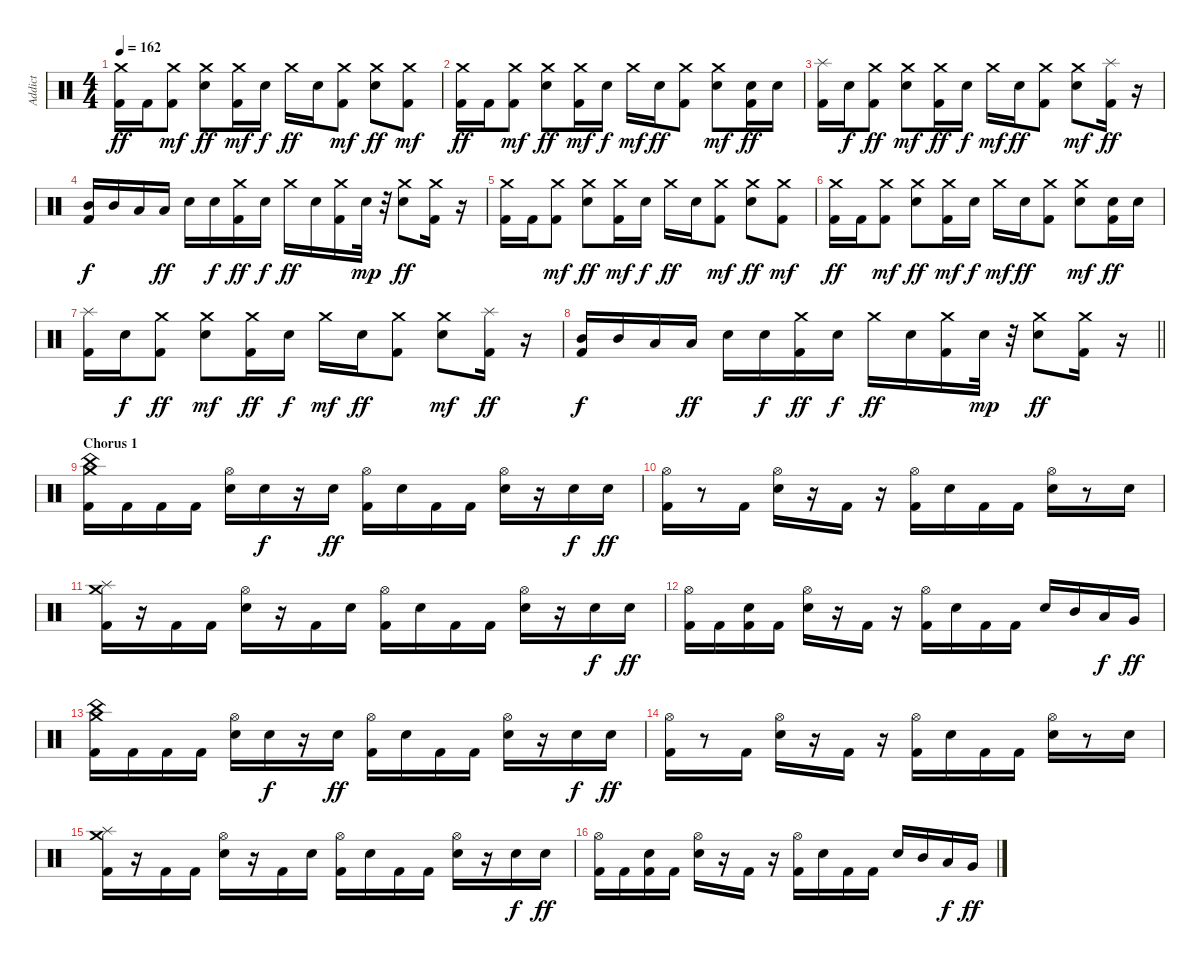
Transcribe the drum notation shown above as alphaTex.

\track ("Addict" "Addict") {instrument percussion}
\staff {score}
\articulation defaults
\ts (4 4)
\tempo 162
\clef neutral
\ks c
("Kick (hit) 2" "Crash medium (hit)").16{dy ff} "Kick (hit) 2".16 ("Kick (hit) 2" "Crash medium (hit)").8{dy mf} ("Snare (hit) 2" "Crash medium (hit)").8{dy ff} ("Kick (hit) 2" "Crash medium (hit)").16{dy mf} "Snare (hit) 2".16{dy f} "Crash medium (hit)".16{dy ff} "Snare (hit) 2".16 ("Kick (hit) 2" "Crash medium (hit)").8{dy mf} ("Snare (hit) 2" "Crash medium (hit)").8{dy ff} ("Kick (hit) 2" "Crash medium (hit)").8{dy mf} |
("Kick (hit) 2" "Crash medium (hit)").16{dy ff} "Kick (hit) 2".16 ("Kick (hit) 2" "Crash medium (hit)").8{dy mf} ("Snare (hit) 2" "Crash medium (hit)").8{dy ff} ("Kick (hit) 2" "Crash medium (hit)").16{dy mf} "Snare (hit) 2".16{dy f} "Crash medium (hit)".16{dy mf} "Snare (hit) 2".16{dy ff} ("Kick (hit) 2" "Crash medium (hit)").8 ("Snare (hit) 2" "Crash medium (hit)").8{dy mf} ("Kick (hit) 2" "Snare (hit) 2").16{dy ff} "Snare (hit) 2".16 |
("Kick (hit) 2" "Splash (hit)").16 "Snare (hit) 2".16{dy f} ("Kick (hit) 2" "Crash medium (hit)").8{dy ff} ("Snare (hit) 2" "Crash medium (hit)").8{dy mf} ("Kick (hit) 2" "Crash medium (hit)").16{dy ff} "Snare (hit) 2".16{dy f} "Crash medium (hit)".16{dy mf} "Snare (hit) 2".16{dy ff} ("Kick (hit) 2" "Crash medium (hit)").8 ("Snare (hit) 2" "Crash medium (hit)").8{dy mf} ("Kick (hit) 2" "Splash (hit)").16{dy ff} r.16 |
("Kick (hit) 2" "Mid Tom (hit)").16{dy f} "Mid Tom (hit)".16 "Low Tom (hit)".16 "Low Tom (hit)".16{dy ff} "Snare (hit) 2".16 "Snare (hit) 2".16{dy f} ("Kick (hit) 2" "Crash medium (hit)").16{dy ff} "Snare (hit) 2".16{dy f} "Crash medium (hit)".16{dy ff} "Snare (hit) 2".16 ("Kick (hit) 2" "Crash medium (hit)").16 "Snare (hit) 2".32{dy mp} r.32 ("Snare (hit) 2" "Crash medium (hit)").8{dy ff} ("Kick (hit) 2" "Crash medium (hit)").16 r.16 |
("Kick (hit) 2" "Crash medium (hit)").16 "Kick (hit) 2".16 ("Kick (hit) 2" "Crash medium (hit)").8{dy mf} ("Snare (hit) 2" "Crash medium (hit)").8{dy ff} ("Kick (hit) 2" "Crash medium (hit)").16{dy mf} "Snare (hit) 2".16{dy f} "Crash medium (hit)".16{dy ff} "Snare (hit) 2".16 ("Kick (hit) 2" "Crash medium (hit)").8{dy mf} ("Snare (hit) 2" "Crash medium (hit)").8{dy ff} ("Kick (hit) 2" "Crash medium (hit)").8{dy mf} |
("Kick (hit) 2" "Crash medium (hit)").16{dy ff} "Kick (hit) 2".16 ("Kick (hit) 2" "Crash medium (hit)").8{dy mf} ("Snare (hit) 2" "Crash medium (hit)").8{dy ff} ("Kick (hit) 2" "Crash medium (hit)").16{dy mf} "Snare (hit) 2".16{dy f} "Crash medium (hit)".16{dy mf} "Snare (hit) 2".16{dy ff} ("Kick (hit) 2" "Crash medium (hit)").8 ("Snare (hit) 2" "Crash medium (hit)").8{dy mf} ("Kick (hit) 2" "Snare (hit) 2").16{dy ff} "Snare (hit) 2".16 |
("Kick (hit) 2" "Splash (hit)").16 "Snare (hit) 2".16{dy f} ("Kick (hit) 2" "Crash medium (hit)").8{dy ff} ("Snare (hit) 2" "Crash medium (hit)").8{dy mf} ("Kick (hit) 2" "Crash medium (hit)").16{dy ff} "Snare (hit) 2".16{dy f} "Crash medium (hit)".16{dy mf} "Snare (hit) 2".16{dy ff} ("Kick (hit) 2" "Crash medium (hit)").8 ("Snare (hit) 2" "Crash medium (hit)").8{dy mf} ("Kick (hit) 2" "Splash (hit)").16{dy ff} r.16 |
\barLineRight lightlight
("Kick (hit) 2" "Mid Tom (hit)").16{dy f} "Mid Tom (hit)".16 "Low Tom (hit)".16 "Low Tom (hit)".16{dy ff} "Snare (hit) 2".16 "Snare (hit) 2".16{dy f} ("Kick (hit) 2" "Crash medium (hit)").16{dy ff} "Snare (hit) 2".16{dy f} "Crash medium (hit)".16{dy ff} "Snare (hit) 2".16 ("Kick (hit) 2" "Crash medium (hit)").16 "Snare (hit) 2".32{dy mp} r.32 ("Snare (hit) 2" "Crash medium (hit)").8{dy ff} ("Kick (hit) 2" "Crash medium (hit)").16 r.16 |
\section ("" "Chorus 1")
("Kick (hit) 2" "Crash medium (hit)" "China (hit)").16 "Kick (hit) 2".16 "Kick (hit) 2".16 "Kick (hit) 2".16 ("Snare (hit) 2" "Hi-Hat (open)").16 "Snare (hit) 2".16{dy f} r.16 "Snare (hit) 2".16{dy ff} ("Kick (hit) 2" "Hi-Hat (open)").16 "Snare (hit) 2".16 "Kick (hit) 2".16 "Kick (hit) 2".16 ("Snare (hit) 2" "Hi-Hat (open)").16 r.16 "Snare (hit) 2".16{dy f} "Snare (hit) 2".16{dy ff} |
("Kick (hit) 2" "Hi-Hat (open)").16 r.8 "Kick (hit) 2".16 ("Snare (hit) 2" "Hi-Hat (open)").16 r.16 "Kick (hit) 2".16 r.16 ("Kick (hit) 2" "Hi-Hat (open)").16 "Snare (hit) 2".16 "Kick (hit) 2".16 "Kick (hit) 2".16 ("Snare (hit) 2" "Hi-Hat (open)").16 r.8 "Snare (hit) 2".16 |
("Kick (hit) 2" "Crash medium (hit)" "Splash (hit)").16 r.16 "Kick (hit) 2".16 "Kick (hit) 2".16 ("Snare (hit) 2" "Hi-Hat (open)").16 r.16 "Kick (hit) 2".16 "Snare (hit) 2".16 ("Kick (hit) 2" "Hi-Hat (open)").16 "Snare (hit) 2".16 "Kick (hit) 2".16 "Kick (hit) 2".16 ("Snare (hit) 2" "Hi-Hat (open)").16 r.16 "Snare (hit) 2".16{dy f} "Snare (hit) 2".16{dy ff} |
("Kick (hit) 2" "Hi-Hat (open)").16 "Kick (hit) 2".16 ("Kick (hit) 2" "Snare (hit) 2").16 "Kick (hit) 2".16 ("Snare (hit) 2" "Hi-Hat (open)").16 r.16 "Kick (hit) 2".16 r.16 ("Kick (hit) 2" "Hi-Hat (open)").16 "Snare (hit) 2".16 "Kick (hit) 2".16 "Kick (hit) 2".16 "Snare (hit) 2".16 "Mid Tom (hit)".16 "Low Tom (hit)".16{dy f} "Very Low Tom (hit)".16{dy ff} |
("Kick (hit) 2" "Crash medium (hit)" "China (hit)").16 "Kick (hit) 2".16 "Kick (hit) 2".16 "Kick (hit) 2".16 ("Snare (hit) 2" "Hi-Hat (open)").16 "Snare (hit) 2".16{dy f} r.16 "Snare (hit) 2".16{dy ff} ("Kick (hit) 2" "Hi-Hat (open)").16 "Snare (hit) 2".16 "Kick (hit) 2".16 "Kick (hit) 2".16 ("Snare (hit) 2" "Hi-Hat (open)").16 r.16 "Snare (hit) 2".16{dy f} "Snare (hit) 2".16{dy ff} |
("Kick (hit) 2" "Hi-Hat (open)").16 r.8 "Kick (hit) 2".16 ("Snare (hit) 2" "Hi-Hat (open)").16 r.16 "Kick (hit) 2".16 r.16 ("Kick (hit) 2" "Hi-Hat (open)").16 "Snare (hit) 2".16 "Kick (hit) 2".16 "Kick (hit) 2".16 ("Snare (hit) 2" "Hi-Hat (open)").16 r.8 "Snare (hit) 2".16 |
("Kick (hit) 2" "Crash medium (hit)" "Splash (hit)").16 r.16 "Kick (hit) 2".16 "Kick (hit) 2".16 ("Snare (hit) 2" "Hi-Hat (open)").16 r.16 "Kick (hit) 2".16 "Snare (hit) 2".16 ("Kick (hit) 2" "Hi-Hat (open)").16 "Snare (hit) 2".16 "Kick (hit) 2".16 "Kick (hit) 2".16 ("Snare (hit) 2" "Hi-Hat (open)").16 r.16 "Snare (hit) 2".16{dy f} "Snare (hit) 2".16{dy ff} |
("Kick (hit) 2" "Hi-Hat (open)").16 "Kick (hit) 2".16 ("Kick (hit) 2" "Snare (hit) 2").16 "Kick (hit) 2".16 ("Snare (hit) 2" "Hi-Hat (open)").16 r.16 "Kick (hit) 2".16 r.16 ("Kick (hit) 2" "Hi-Hat (open)").16 "Snare (hit) 2".16 "Kick (hit) 2".16 "Kick (hit) 2".16 "Snare (hit) 2".16 "Mid Tom (hit)".16 "Low Tom (hit)".16{dy f} "Very Low Tom (hit)".16{dy ff}
